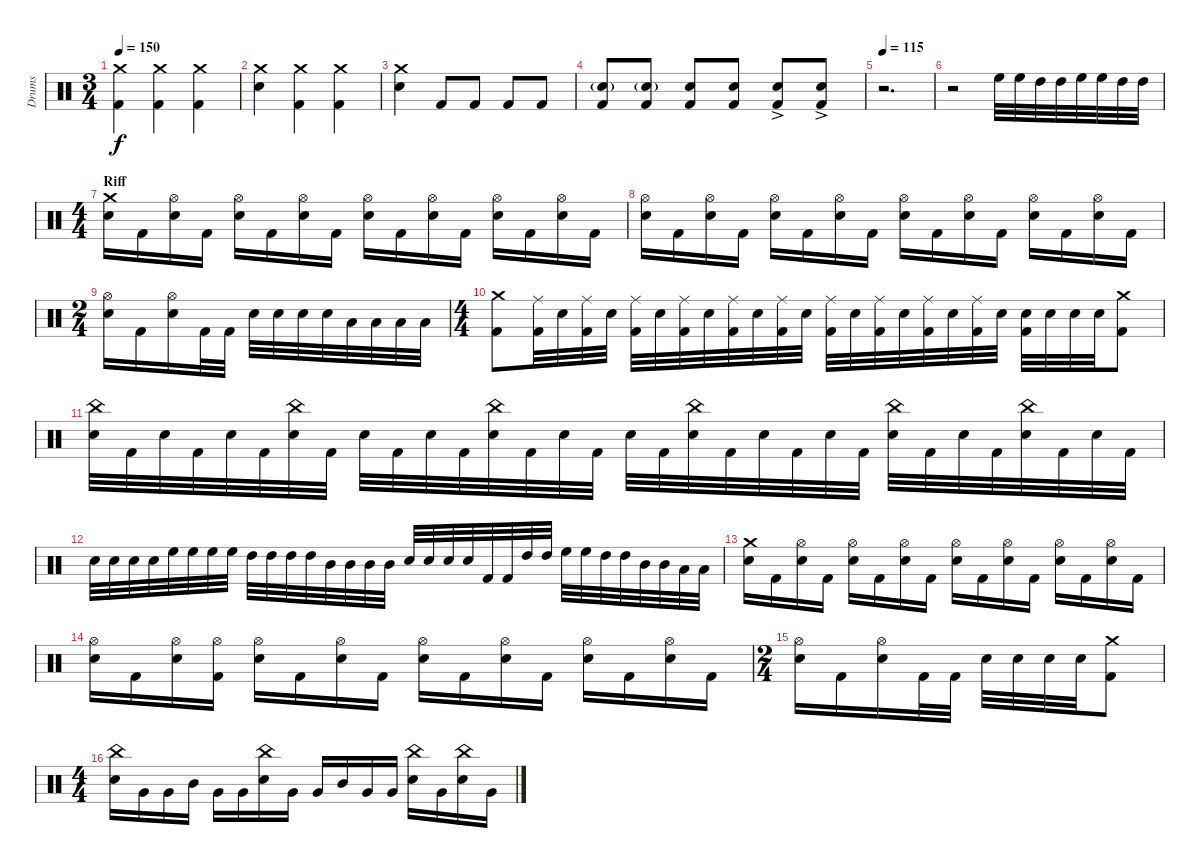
\track ("Drums" "Drums") {instrument percussion}
\staff {score}
\articulation defaults
\ts (3 4)
\tempo 150
\clef neutral
\ks c
("Crash medium (hit)" "Kick (hit) 2").4{dy f} ("Crash medium (hit)" "Kick (hit) 2").4 ("Crash medium (hit)" "Kick (hit) 2").4 |
("Crash medium (hit)" "Snare (hit) 2").4 ("Crash medium (hit)" "Kick (hit) 2").4 ("Crash medium (hit)" "Kick (hit) 2").4 |
("Crash medium (hit)" "Snare (hit) 2").4 "Kick (hit) 2".8 "Kick (hit) 2".8 "Kick (hit) 2".8 "Kick (hit) 2".8 |
("Snare (hit) 2"{g} "Kick (hit) 2").8 ("Snare (hit) 2"{g} "Kick (hit) 2").8 ("Snare (hit) 2" "Kick (hit) 2").8 ("Snare (hit) 2" "Kick (hit) 2").8 ("Snare (hit) 2"{ac} "Kick (hit) 2").8 ("Snare (hit) 2"{ac} "Kick (hit) 2").8 |
\tempo 115
r.2{d} |
r.2 "High Floor Tom (hit)".32 "High Floor Tom (hit)".32 "High Tom (hit)".32 "High Tom (hit)".32 "High Floor Tom (hit)".32 "High Floor Tom (hit)".32 "High Tom (hit)".32 "High Tom (hit)".32 |
\ts (4 4)
\section ("" "Riff")
("Crash medium (hit)" "Snare (hit) 2").16 "Kick (hit) 2".16 ("Hi-Hat (open)" "Snare (hit) 2").16 "Kick (hit) 2".16 ("Hi-Hat (open)" "Snare (hit) 2").16 "Kick (hit) 2".16 ("Hi-Hat (open)" "Snare (hit) 2").16 "Kick (hit) 2".16 ("Hi-Hat (open)" "Snare (hit) 2").16 "Kick (hit) 2".16 ("Hi-Hat (open)" "Snare (hit) 2").16 "Kick (hit) 2".16 ("Hi-Hat (open)" "Snare (hit) 2").16 "Kick (hit) 2".16 ("Hi-Hat (open)" "Snare (hit) 2").16 "Kick (hit) 2".16 |
("Hi-Hat (open)" "Snare (hit) 2").16 "Kick (hit) 2".16 ("Hi-Hat (open)" "Snare (hit) 2").16 "Kick (hit) 2".16 ("Hi-Hat (open)" "Snare (hit) 2").16 "Kick (hit) 2".16 ("Hi-Hat (open)" "Snare (hit) 2").16 "Kick (hit) 2".16 ("Hi-Hat (open)" "Snare (hit) 2").16 "Kick (hit) 2".16 ("Hi-Hat (open)" "Snare (hit) 2").16 "Kick (hit) 2".16 ("Hi-Hat (open)" "Snare (hit) 2").16 "Kick (hit) 2".16 ("Hi-Hat (open)" "Snare (hit) 2").16 "Kick (hit) 2".16 |
\ts (2 4)
("Hi-Hat (open)" "Snare (hit) 2").16 "Kick (hit) 2".16 ("Hi-Hat (open)" "Snare (hit) 2").16 "Kick (hit) 2".32 "Kick (hit) 2".32 "Snare (hit) 2".32 "Snare (hit) 2".32 "Snare (hit) 2".32 "Snare (hit) 2".32 "Low Tom (hit)".32 "Low Tom (hit)".32 "Low Tom (hit)".32 "Low Tom (hit)".32 |
\ts (4 4)
("Crash medium (hit)" "Kick (hit) 2").8 ("Ride (middle)" "Kick (hit) 2").32 "Snare (hit) 2".32 ("Ride (middle)" "Kick (hit) 2").32 "Snare (hit) 2".32 ("Ride (middle)" "Kick (hit) 2").32 "Snare (hit) 2".32 ("Ride (middle)" "Kick (hit) 2").32 "Snare (hit) 2".32 ("Ride (middle)" "Kick (hit) 2").32 "Snare (hit) 2".32 ("Ride (middle)" "Kick (hit) 2").32 "Snare (hit) 2".32 ("Ride (middle)" "Kick (hit) 2").32 "Snare (hit) 2".32 ("Ride (middle)" "Kick (hit) 2").32 "Snare (hit) 2".32 ("Ride (middle)" "Kick (hit) 2").32 "Snare (hit) 2".32 ("Ride (middle)" "Kick (hit) 2").32 "Snare (hit) 2".32 ("Snare (hit) 2" "Kick (hit) 2").32 "Snare (hit) 2".32 "Snare (hit) 2".32 "Snare (hit) 2".32 ("Crash medium (hit)" "Kick (hit) 2").8 |
("China (hit)" "Snare (hit) 2").32 "Kick (hit) 2".32 "Snare (hit) 2".32 "Kick (hit) 2".32 "Snare (hit) 2".32 "Kick (hit) 2".32 ("China (hit)" "Snare (hit) 2").32 "Kick (hit) 2".32 "Snare (hit) 2".32 "Kick (hit) 2".32 "Snare (hit) 2".32 "Kick (hit) 2".32 ("China (hit)" "Snare (hit) 2").32 "Kick (hit) 2".32 "Snare (hit) 2".32 "Kick (hit) 2".32 "Snare (hit) 2".32 "Kick (hit) 2".32 ("China (hit)" "Snare (hit) 2").32 "Kick (hit) 2".32 "Snare (hit) 2".32 "Kick (hit) 2".32 "Snare (hit) 2".32 "Kick (hit) 2".32 ("China (hit)" "Snare (hit) 2").32 "Kick (hit) 2".32 "Snare (hit) 2".32 "Kick (hit) 2".32 ("China (hit)" "Snare (hit) 2").32 "Kick (hit) 2".32 "Snare (hit) 2".32 "Kick (hit) 2".32 |
"Snare (hit) 2".32 "Snare (hit) 2".32 "Snare (hit) 2".32 "Snare (hit) 2".32 "High Floor Tom (hit)".32 "High Floor Tom (hit)".32 "High Floor Tom (hit)".32 "High Floor Tom (hit)".32 "High Tom (hit)".32 "High Tom (hit)".32 "High Tom (hit)".32 "High Tom (hit)".32 "Mid Tom (hit)".32 "Mid Tom (hit)".32 "Mid Tom (hit)".32 "Mid Tom (hit)".32 "Snare (hit) 2".32 "Snare (hit) 2".32 "Snare (hit) 2".32 "Snare (hit) 2".32 "Kick (hit) 2".32 "Kick (hit) 2".32 "High Tom (hit)".32 "High Tom (hit)".32 "High Floor Tom (hit)".32 "High Floor Tom (hit)".32 "High Tom (hit)".32 "High Tom (hit)".32 "Mid Tom (hit)".32 "Mid Tom (hit)".32 "Low Tom (hit)".32 "Low Tom (hit)".32 |
("Crash medium (hit)" "Snare (hit) 2").16 "Kick (hit) 2".16 ("Hi-Hat (open)" "Snare (hit) 2").16 "Kick (hit) 2".16 ("Hi-Hat (open)" "Snare (hit) 2").16 "Kick (hit) 2".16 ("Hi-Hat (open)" "Snare (hit) 2").16 "Kick (hit) 2".16 ("Hi-Hat (open)" "Snare (hit) 2").16 "Kick (hit) 2".16 ("Hi-Hat (open)" "Snare (hit) 2").16 "Kick (hit) 2".16 ("Hi-Hat (open)" "Snare (hit) 2").16 "Kick (hit) 2".16 ("Hi-Hat (open)" "Snare (hit) 2").16 "Kick (hit) 2".16 |
("Hi-Hat (open)" "Snare (hit) 2").16 "Kick (hit) 2".16 ("Hi-Hat (open)" "Snare (hit) 2").16 ("Hi-Hat (open)" "Kick (hit) 2").16 ("Hi-Hat (open)" "Snare (hit) 2").16 "Kick (hit) 2".16 ("Hi-Hat (open)" "Snare (hit) 2").16 "Kick (hit) 2".16 ("Hi-Hat (open)" "Snare (hit) 2").16 "Kick (hit) 2".16 ("Hi-Hat (open)" "Snare (hit) 2").16 "Kick (hit) 2".16 ("Hi-Hat (open)" "Snare (hit) 2").16 "Kick (hit) 2".16 ("Hi-Hat (open)" "Snare (hit) 2").16 "Kick (hit) 2".16 |
\ts (2 4)
("Hi-Hat (open)" "Snare (hit) 2").16 "Kick (hit) 2".16 ("Hi-Hat (open)" "Snare (hit) 2").16 "Kick (hit) 2".32 "Kick (hit) 2".32 "Snare (hit) 2".32 "Snare (hit) 2".32 "Snare (hit) 2".32 "Snare (hit) 2".32 ("Crash medium (hit)" "Kick (hit) 2").8 |
\ts (4 4)
("China (hit)" "Snare (hit) 2").16 "Very Low Tom (hit)".16 "Very Low Tom (hit)".16 "Mid Tom (hit)".16 "Very Low Tom (hit)".16 "Very Low Tom (hit)".16 ("China (hit)" "Snare (hit) 2").16 "Very Low Tom (hit)".16 "Very Low Tom (hit)".16 "Mid Tom (hit)".16 "Very Low Tom (hit)".16 "Very Low Tom (hit)".16 ("China (hit)" "Snare (hit) 2").16 "Very Low Tom (hit)".16 ("China (hit)" "Snare (hit) 2").16 "Very Low Tom (hit)".16
